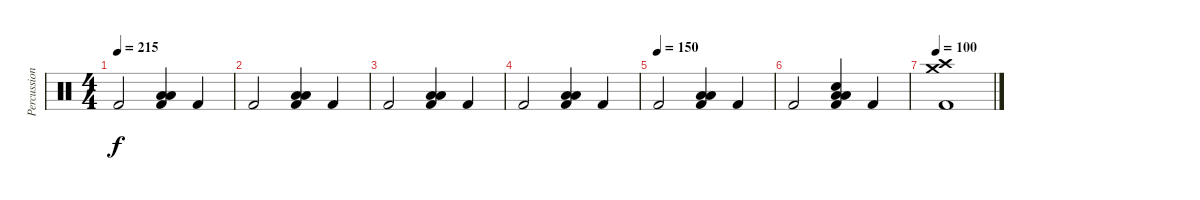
\track ("Percussion" "Percussion") {instrument percussion}
\staff {score}
\articulation defaults
\ts (4 4)
\tempo 215
\clef neutral
\ks c "Kick (hit) 2".2{dy f}
("Low Tom (hit)" "Low Floor Tom (hit)" "Kick (hit) 2").4 "Kick (hit) 2".4 |
"Kick (hit) 2".2 ("Low Tom (hit)" "Low Floor Tom (hit)" "Kick (hit) 2").4 "Kick (hit) 2".4 |
"Kick (hit) 2".2 ("Low Tom (hit)" "Low Floor Tom (hit)" "Kick (hit) 2").4 "Kick (hit) 2".4 |
"Kick (hit) 2".2 ("Low Tom (hit)" "Low Floor Tom (hit)" "Kick (hit) 2").4 "Kick (hit) 2".4 |
\tempo (150)
"Kick (hit) 2".2 ("Low Tom (hit)" "Low Floor Tom (hit)" "Kick (hit) 2").4 "Kick (hit) 2".4 |
"Kick (hit) 2".2 ("Snare (hit) 2" "Low Tom (hit)" "Low Floor Tom (hit)" "Kick (hit) 2").4 "Kick (hit) 2".4 |
\tempo 100
("Crash high (hit)" "Crash medium (hit)" "Kick (hit) 2").1
